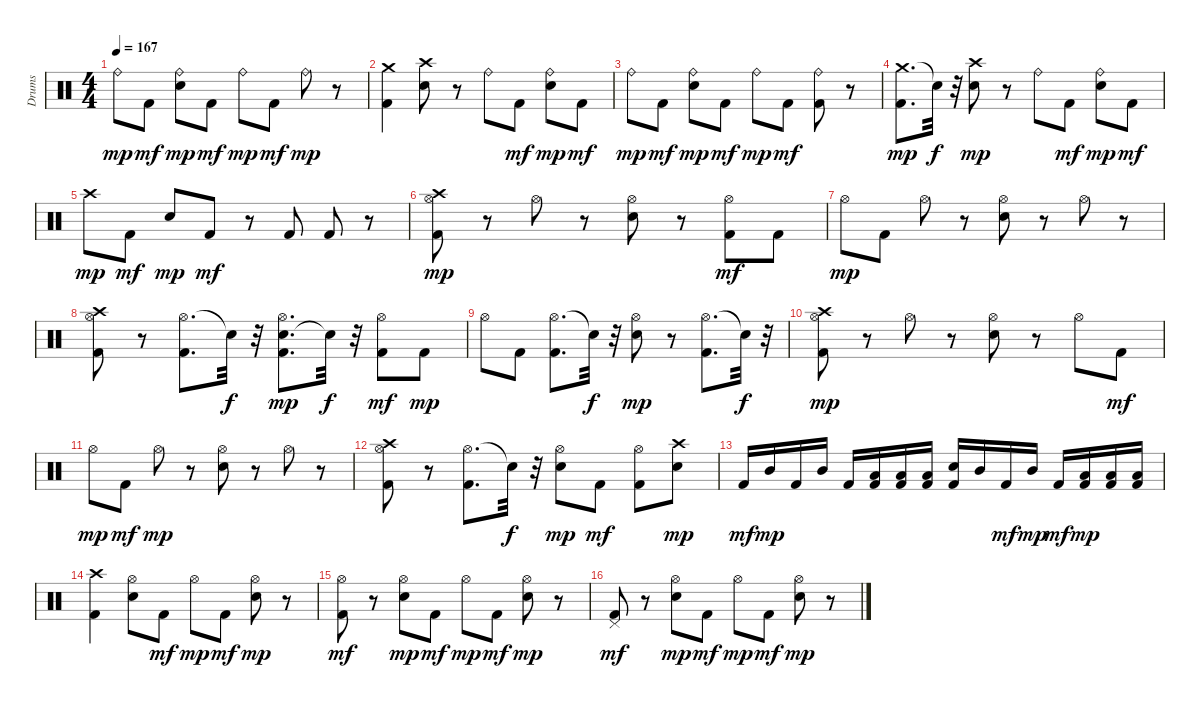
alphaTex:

\track ("Drums" "Drums") {instrument percussion}
\staff {score}
\articulation defaults
\ts (4 4)
\tempo 167
\clef neutral
\ks c "Ride (bell)".8{dy mp} "Kick (hit) 2".8{dy mf}
("Electric Snare (hit)" "Ride (bell)").8{dy mp} "Kick (hit) 2".8{dy mf} "Ride (bell)".8{dy mp} "Kick (hit) 2".8{dy mf} "Ride (bell)".8{dy mp} r.8 |
("Kick (hit) 2" "Crash medium (hit)").4 ("Electric Snare (hit)" "Crash high (hit)").8 r.8 "Ride (bell)".8 "Kick (hit) 2".8{dy mf} ("Electric Snare (hit)" "Ride (bell)").8{dy mp} "Kick (hit) 2".8{dy mf} |
"Ride (bell)".8{dy mp} "Kick (hit) 2".8{dy mf} ("Electric Snare (hit)" "Ride (bell)").8{dy mp} "Kick (hit) 2".8{dy mf} "Ride (bell)".8{dy mp} "Kick (hit) 2".8{dy mf} ("Ride (bell)" "Kick (hit) 2").8 r.8 |
("Crash medium (hit)" "Kick (hit) 2").8{d dy mp} "Snare (hit)"{t}.32{dy f} r.32 ("Electric Snare (hit)" "Crash high (hit)").8{dy mp} r.8 "Ride (bell)".8 "Kick (hit) 2".8{dy mf} ("Electric Snare (hit)" "Ride (bell)").8{dy mp} "Kick (hit) 2".8{dy mf} |
"Crash high (hit)".8{dy mp} "Kick (hit) 2".8{dy mf} "Electric Snare (hit)".8{dy mp} "Kick (hit) 2".8{dy mf} r.8 "Kick (hit) 2".8 "Kick (hit) 2".8 r.8 |
("Hi-Hat (open)" "Kick (hit) 2" "Crash high (hit)").8{dy mp} r.8 "Hi-Hat (open)".8 r.8 ("Electric Snare (hit)" "Hi-Hat (open)").8 r.8 ("Hi-Hat (open)" "Kick (hit) 2").8{dy mf} "Kick (hit) 2".8 |
"Hi-Hat (open)".8{dy mp} "Kick (hit) 2".8 "Hi-Hat (open)".8 r.8 ("Electric Snare (hit)" "Hi-Hat (open)").8 r.8 "Hi-Hat (open)".8 r.8 |
("Hi-Hat (open)" "Kick (hit) 2" "Crash high (hit)").8 r.8 ("Hi-Hat (open)" "Kick (hit) 2").8{d} "Snare (hit)"{t}.32{dy f} r.32 ("Electric Snare (hit)" "Hi-Hat (open)" "Kick (hit) 2").8{d dy mp} "Snare (hit)"{t}.32{dy f} r.32 ("Hi-Hat (open)" "Kick (hit) 2").8{dy mf} "Kick (hit) 2".8{dy mp} |
"Hi-Hat (open)".8 "Kick (hit) 2".8 ("Hi-Hat (open)" "Kick (hit) 2").8{d} "Snare (hit)"{t}.32{dy f} r.32 ("Electric Snare (hit)" "Hi-Hat (open)").8{dy mp} r.8 ("Hi-Hat (open)" "Kick (hit) 2").8{d} "Snare (hit)"{t}.32{dy f} r.32 |
("Hi-Hat (open)" "Kick (hit) 2" "Crash high (hit)").8{dy mp} r.8 "Hi-Hat (open)".8 r.8 ("Electric Snare (hit)" "Hi-Hat (open)").8 r.8 "Hi-Hat (open)".8 "Kick (hit) 2".8{dy mf} |
"Hi-Hat (open)".8{dy mp} "Kick (hit) 2".8{dy mf} "Hi-Hat (open)".8{dy mp} r.8 ("Electric Snare (hit)" "Hi-Hat (open)").8 r.8 "Hi-Hat (open)".8 r.8 |
("Hi-Hat (open)" "Kick (hit) 2" "Crash high (hit)").8 r.8 ("Hi-Hat (open)" "Kick (hit) 2").8{d} "Snare (hit)"{t}.32{dy f} r.32 ("Electric Snare (hit)" "Hi-Hat (open)").8{dy mp} "Kick (hit) 2".8{dy mf} ("Hi-Hat (open)" "Kick (hit) 2").8 ("Electric Snare (hit)" "Crash high (hit)").8{dy mp} |
"Kick (hit) 2".16{dy mf} "Mid Tom (hit)".16{dy mp} "Kick (hit) 2".16 "Mid Tom (hit)".16 "Kick (hit) 2".16 ("Kick (hit) 2" "Low Tom (hit)").16 ("Kick (hit) 2" "Low Tom (hit)").16 ("Kick (hit) 2" "Low Tom (hit)").16 ("Electric Snare (hit)" "Kick (hit) 2").16 "Mid Tom (hit)".16 "Kick (hit) 2".16{dy mf} "Mid Tom (hit)".16{dy mp} "Kick (hit) 2".16{dy mf} ("Kick (hit) 2" "Low Tom (hit)").16{dy mp} ("Kick (hit) 2" "Low Tom (hit)").16 ("Kick (hit) 2" "Low Tom (hit)").16 |
("Kick (hit) 2" "Crash high (hit)").4 ("Electric Snare (hit)" "Hi-Hat (open)").8 "Kick (hit) 2".8{dy mf} "Hi-Hat (open)".8{dy mp} "Kick (hit) 2".8{dy mf} ("Electric Snare (hit)" "Hi-Hat (open)").8{dy mp} r.8 |
("Hi-Hat (open)" "Kick (hit) 2").8{dy mf} r.8 ("Electric Snare (hit)" "Hi-Hat (open)").8{dy mp} "Kick (hit) 2".8{dy mf} "Hi-Hat (open)".8{dy mp} "Kick (hit) 2".8{dy mf} ("Electric Snare (hit)" "Hi-Hat (open)").8{dy mp} r.8 |
("Pedal Hi-Hat (hit)" "Kick (hit) 2").8{dy mf} r.8 ("Electric Snare (hit)" "Hi-Hat (open)").8{dy mp} "Kick (hit) 2".8{dy mf} "Hi-Hat (open)".8{dy mp} "Kick (hit) 2".8{dy mf} ("Electric Snare (hit)" "Hi-Hat (open)").8{dy mp} r.8
